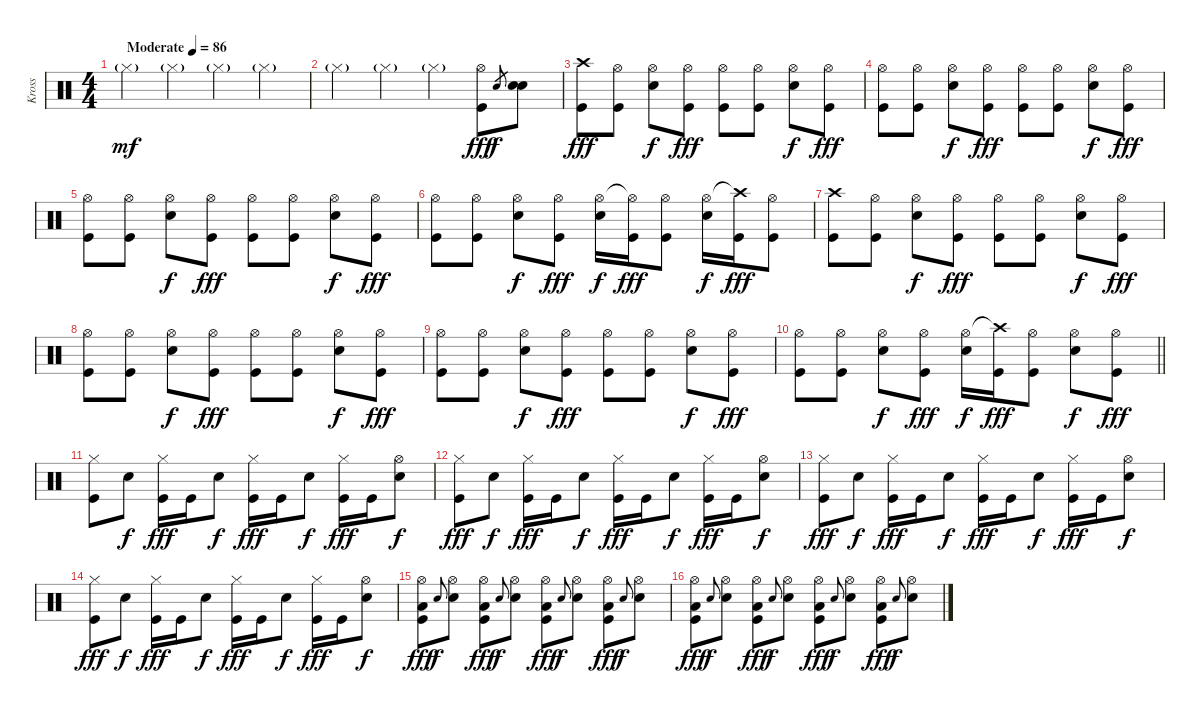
\track ("Kross" "Kross") {instrument percussion}
\staff {score}
\articulation defaults
\ts (4 4)
\tempo (86 "Moderate")
\clef neutral
\ks c "Hi-Hat (closed)"{g}.4{dy mf} "Hi-Hat (closed)"{g}.4 "Hi-Hat (closed)"{g}.4 "Hi-Hat (closed)"{g}.4
|
"Hi-Hat (closed)"{g}.4 "Hi-Hat (closed)"{g}.4 "Hi-Hat (closed)"{g}.4 ("Hi-Hat (open)" "Kick (hit)").8{dy fff} "Electric Snare (hit)".8{gr dy f} ("Electric Snare (hit)" "Electric Snare (hit)").8 |
("Crash high (hit)" "Kick (hit)").8{dy fff} ("Hi-Hat (open)" "Kick (hit)").8 ("Hi-Hat (open)" "Electric Snare (hit)").8{dy f} ("Hi-Hat (open)" "Kick (hit)").8{dy fff} ("Hi-Hat (open)" "Kick (hit)").8 ("Hi-Hat (open)" "Kick (hit)").8 ("Hi-Hat (open)" "Electric Snare (hit)").8{dy f} ("Hi-Hat (open)" "Kick (hit)").8{dy fff} |
("Hi-Hat (open)" "Kick (hit)").8 ("Hi-Hat (open)" "Kick (hit)").8 ("Hi-Hat (open)" "Electric Snare (hit)").8{dy f} ("Hi-Hat (open)" "Kick (hit)").8{dy fff} ("Hi-Hat (open)" "Kick (hit)").8 ("Hi-Hat (open)" "Kick (hit)").8 ("Hi-Hat (open)" "Electric Snare (hit)").8{dy f} ("Hi-Hat (open)" "Kick (hit)").8{dy fff} |
("Hi-Hat (open)" "Kick (hit)").8 ("Hi-Hat (open)" "Kick (hit)").8 ("Hi-Hat (open)" "Electric Snare (hit)").8{dy f} ("Hi-Hat (open)" "Kick (hit)").8{dy fff} ("Hi-Hat (open)" "Kick (hit)").8 ("Hi-Hat (open)" "Kick (hit)").8 ("Hi-Hat (open)" "Electric Snare (hit)").8{dy f} ("Hi-Hat (open)" "Kick (hit)").8{dy fff} |
("Hi-Hat (open)" "Kick (hit)").8 ("Hi-Hat (open)" "Kick (hit)").8 ("Hi-Hat (open)" "Electric Snare (hit)").8{dy f} ("Hi-Hat (open)" "Kick (hit)").8{dy fff} ("Hi-Hat (open)" "Electric Snare (hit)").16{dy f} ("Hi-Hat (open)"{t} "Kick (hit)").16{dy fff} ("Hi-Hat (open)" "Kick (hit)").8 ("Hi-Hat (open)" "Electric Snare (hit)").16{dy f} ("Crash high (hit)"{t} "Kick (hit)").16{dy fff} ("Hi-Hat (open)" "Kick (hit)").8 |
("Crash high (hit)" "Kick (hit)").8 ("Hi-Hat (open)" "Kick (hit)").8 ("Hi-Hat (open)" "Electric Snare (hit)").8{dy f} ("Hi-Hat (open)" "Kick (hit)").8{dy fff} ("Hi-Hat (open)" "Kick (hit)").8 ("Hi-Hat (open)" "Kick (hit)").8 ("Hi-Hat (open)" "Electric Snare (hit)").8{dy f} ("Hi-Hat (open)" "Kick (hit)").8{dy fff} |
("Hi-Hat (open)" "Kick (hit)").8 ("Hi-Hat (open)" "Kick (hit)").8 ("Hi-Hat (open)" "Electric Snare (hit)").8{dy f} ("Hi-Hat (open)" "Kick (hit)").8{dy fff} ("Hi-Hat (open)" "Kick (hit)").8 ("Hi-Hat (open)" "Kick (hit)").8 ("Hi-Hat (open)" "Electric Snare (hit)").8{dy f} ("Hi-Hat (open)" "Kick (hit)").8{dy fff} |
("Hi-Hat (open)" "Kick (hit)").8 ("Hi-Hat (open)" "Kick (hit)").8 ("Hi-Hat (open)" "Electric Snare (hit)").8{dy f} ("Hi-Hat (open)" "Kick (hit)").8{dy fff} ("Hi-Hat (open)" "Kick (hit)").8 ("Hi-Hat (open)" "Kick (hit)").8 ("Hi-Hat (open)" "Electric Snare (hit)").8{dy f} ("Hi-Hat (open)" "Kick (hit)").8{dy fff} |
\barLineRight lightlight
("Hi-Hat (open)" "Kick (hit)").8 ("Hi-Hat (open)" "Kick (hit)").8 ("Hi-Hat (open)" "Electric Snare (hit)").8{dy f} ("Hi-Hat (open)" "Kick (hit)").8{dy fff} ("Hi-Hat (open)" "Electric Snare (hit)").16{dy f} ("Crash high (hit)"{t} "Kick (hit)").16{dy fff} ("Hi-Hat (open)" "Kick (hit)").8 ("Hi-Hat (open)" "Electric Snare (hit)").8{dy f} ("Hi-Hat (open)" "Kick (hit)").8{dy fff} |
("Hi-Hat (closed)" "Kick (hit)").8 "Electric Snare (hit)".8{dy f} ("Hi-Hat (closed)" "Kick (hit)").16{dy fff} "Kick (hit)".16 "Electric Snare (hit)".8{dy f} ("Hi-Hat (closed)" "Kick (hit)").16{dy fff} "Kick (hit)".16 "Electric Snare (hit)".8{dy f} ("Hi-Hat (closed)" "Kick (hit)").16{dy fff} "Kick (hit)".16 ("Hi-Hat (open)" "Electric Snare (hit)").8{dy f} |
("Hi-Hat (closed)" "Kick (hit)").8{dy fff} "Electric Snare (hit)".8{dy f} ("Hi-Hat (closed)" "Kick (hit)").16{dy fff} "Kick (hit)".16 "Electric Snare (hit)".8{dy f} ("Hi-Hat (closed)" "Kick (hit)").16{dy fff} "Kick (hit)".16 "Electric Snare (hit)".8{dy f} ("Hi-Hat (closed)" "Kick (hit)").16{dy fff} "Kick (hit)".16 ("Hi-Hat (open)" "Electric Snare (hit)").8{dy f} |
("Hi-Hat (closed)" "Kick (hit)").8{dy fff} "Electric Snare (hit)".8{dy f} ("Hi-Hat (closed)" "Kick (hit)").16{dy fff} "Kick (hit)".16 "Electric Snare (hit)".8{dy f} ("Hi-Hat (closed)" "Kick (hit)").16{dy fff} "Kick (hit)".16 "Electric Snare (hit)".8{dy f} ("Hi-Hat (closed)" "Kick (hit)").16{dy fff} "Kick (hit)".16 ("Hi-Hat (open)" "Electric Snare (hit)").8{dy f} |
("Hi-Hat (closed)" "Kick (hit)").8{dy fff} "Electric Snare (hit)".8{dy f} ("Hi-Hat (closed)" "Kick (hit)").16{dy fff} "Kick (hit)".16 "Electric Snare (hit)".8{dy f} ("Hi-Hat (closed)" "Kick (hit)").16{dy fff} "Kick (hit)".16 "Electric Snare (hit)".8{dy f} ("Hi-Hat (closed)" "Kick (hit)").16{dy fff} "Kick (hit)".16 ("Hi-Hat (open)" "Electric Snare (hit)").8{dy f} |
("Hi-Hat (open)" "Low Floor Tom (hit)" "Kick (hit)").8{dy fff} "Electric Snare (hit)"{h}.8{gr onbeat dy f} ("Hi-Hat (open)" "Electric Snare (hit)").8 ("Hi-Hat (open)" "Low Floor Tom (hit)" "Kick (hit)").8{dy fff} "Electric Snare (hit)".8{gr onbeat dy f} ("Hi-Hat (open)" "Electric Snare (hit)").8 ("Hi-Hat (open)" "Low Floor Tom (hit)" "Kick (hit)").8{dy fff} "Electric Snare (hit)".8{gr onbeat dy f} ("Hi-Hat (open)" "Electric Snare (hit)").8 ("Hi-Hat (open)" "Low Floor Tom (hit)" "Kick (hit)").8{dy fff} "Electric Snare (hit)".8{gr onbeat dy f} ("Hi-Hat (open)" "Electric Snare (hit)").8 |
("Hi-Hat (open)" "Low Floor Tom (hit)" "Kick (hit)").8{dy fff} "Electric Snare (hit)"{h}.8{gr onbeat dy f} ("Hi-Hat (open)" "Electric Snare (hit)").8 ("Hi-Hat (open)" "Low Floor Tom (hit)" "Kick (hit)").8{dy fff} "Electric Snare (hit)".8{gr onbeat dy f} ("Hi-Hat (open)" "Electric Snare (hit)").8 ("Hi-Hat (open)" "Low Floor Tom (hit)" "Kick (hit)").8{dy fff} "Electric Snare (hit)".8{gr onbeat dy f} ("Hi-Hat (open)" "Electric Snare (hit)").8 ("Hi-Hat (open)" "Low Floor Tom (hit)" "Kick (hit)").8{dy fff} "Electric Snare (hit)".8{gr onbeat dy f} ("Hi-Hat (open)" "Electric Snare (hit)").8
